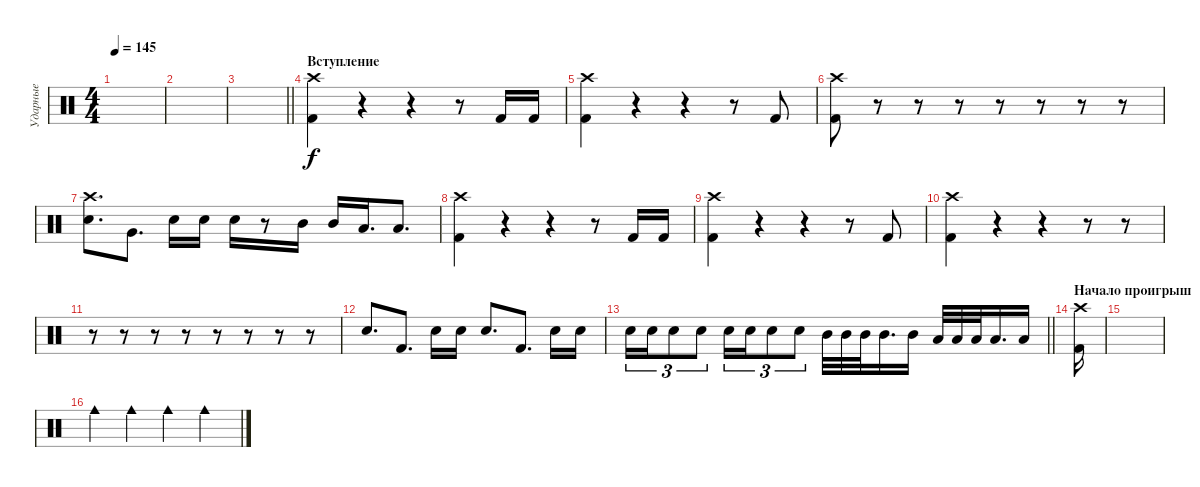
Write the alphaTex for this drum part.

\track ("Ударные" "Ударные") {instrument percussion bank 127}
\staff
\articulation defaults
\ts (4 4)
\tempo 145
\clef neutral
\ks c
|
|
\barLineRight lightlight
|
\section ("" "Вступление")
("Kick (hit) 2" "Crash high (hit)").4 r.4 r.4 r.8 "Kick (hit) 2".16 "Kick (hit) 2".16 |
("Kick (hit) 2" "Crash high (hit)").4 r.4 r.4 r.8 "Kick (hit) 2".8 |
("Kick (hit) 2" "Crash high (hit)").8 r.8 r.8 r.8 r.8 r.8 r.8 r.8 |
("Snare (hit) 2" "Crash high (hit)").8{d} "Very Low Tom (hit)".8{d} "Snare (hit) 2".16 "Snare (hit) 2".16 "Snare (hit) 2".16 r.8 "Mid Tom (hit)".16 "Mid Tom (hit)".16 "Low Tom (hit)".16{d} "Low Tom (hit)".8{d} |
("Kick (hit) 2" "Crash high (hit)").4 r.4 r.4 r.8 "Kick (hit) 2".16 "Kick (hit) 2".16 |
("Kick (hit) 2" "Crash high (hit)").4 r.4 r.4 r.8 "Kick (hit) 2".8 |
("Kick (hit) 2" "Crash high (hit)").4 r.4 r.4 r.8 r.8 |
r.8 r.8 r.8 r.8 r.8 r.8 r.8 r.8 |
"Snare (hit) 2".8{d} "Kick (hit) 2".8{d} "Snare (hit) 2".16 "Snare (hit) 2".16 "Snare (hit) 2".8{d} "Kick (hit) 2".8{d} "Snare (hit) 2".16 "Snare (hit) 2".16 |
\barLineRight lightlight "Snare (hit) 2".16{tu (3 2)} "Snare (hit) 2".16{tu (3 2)} "Snare (hit) 2".8{tu (3 2)} "Snare (hit) 2".8{tu (3 2)} "Snare (hit) 2".16{tu (3 2)} "Snare (hit) 2".16{tu (3 2)} "Snare (hit) 2".8{tu (3 2)} "Snare (hit) 2".8{tu (3 2)} "Mid Tom (hit)".32 "Mid Tom (hit)".32 "Mid Tom (hit)".32 "Mid Tom (hit)".16{d} "Mid Tom (hit)".16 "Low Tom (hit)".32 "Low Tom (hit)".32 "Low Tom (hit)".32 "Low Tom (hit)".16{d} "Low Tom (hit)".16
|
\section ("" "Начало проигрыш")
("Crash high (hit)" "Kick (hit) 2").16 |
|
"Cowbell medium (hit)".4 "Cowbell medium (hit)".4 "Cowbell medium (hit)".4 "Cowbell medium (hit)".4
